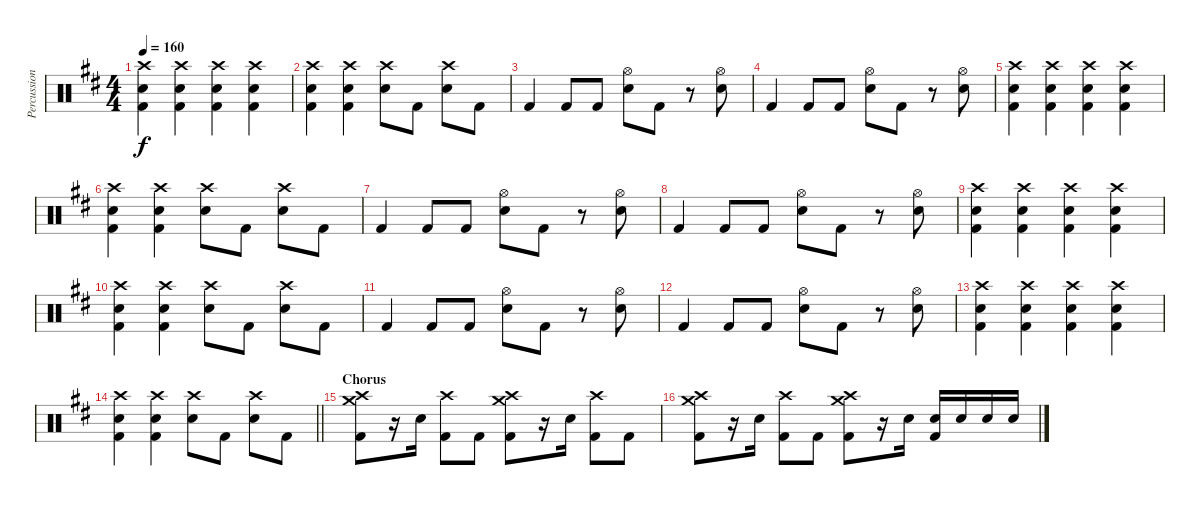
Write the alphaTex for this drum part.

\track ("Percussion" "Percussion") {instrument percussion}
\staff {score}
\articulation defaults
\ts (4 4)
\tempo 160
\clef neutral
\ks d
("Crash high (hit)" "Electric Snare (hit)" "Kick (hit) 2").4{dy f} ("Crash high (hit)" "Electric Snare (hit)" "Kick (hit) 2").4 ("Crash high (hit)" "Electric Snare (hit)" "Kick (hit) 2").4 ("Crash high (hit)" "Electric Snare (hit)" "Kick (hit) 2").4 |
("Crash high (hit)" "Electric Snare (hit)" "Kick (hit) 2").4 ("Crash high (hit)" "Electric Snare (hit)" "Kick (hit) 2").4 ("Crash high (hit)" "Electric Snare (hit)").8 "Kick (hit) 2".8 ("Crash high (hit)" "Electric Snare (hit)").8 "Kick (hit) 2".8 |
"Kick (hit) 2".4 "Kick (hit) 2".8 "Kick (hit) 2".8 ("Hi-Hat (open)" "Electric Snare (hit)").8 "Kick (hit) 2".8 r.8 ("Hi-Hat (open)" "Electric Snare (hit)").8 |
"Kick (hit) 2".4 "Kick (hit) 2".8 "Kick (hit) 2".8 ("Hi-Hat (open)" "Electric Snare (hit)").8 "Kick (hit) 2".8 r.8 ("Hi-Hat (open)" "Electric Snare (hit)").8 |
("Crash high (hit)" "Electric Snare (hit)" "Kick (hit) 2").4 ("Crash high (hit)" "Electric Snare (hit)" "Kick (hit) 2").4 ("Crash high (hit)" "Electric Snare (hit)" "Kick (hit) 2").4 ("Crash high (hit)" "Electric Snare (hit)" "Kick (hit) 2").4 |
("Crash high (hit)" "Electric Snare (hit)" "Kick (hit) 2").4 ("Crash high (hit)" "Electric Snare (hit)" "Kick (hit) 2").4 ("Crash high (hit)" "Electric Snare (hit)").8 "Kick (hit) 2".8 ("Crash high (hit)" "Electric Snare (hit)").8 "Kick (hit) 2".8 |
"Kick (hit) 2".4 "Kick (hit) 2".8 "Kick (hit) 2".8 ("Hi-Hat (open)" "Electric Snare (hit)").8 "Kick (hit) 2".8 r.8 ("Hi-Hat (open)" "Electric Snare (hit)").8 |
"Kick (hit) 2".4 "Kick (hit) 2".8 "Kick (hit) 2".8 ("Hi-Hat (open)" "Electric Snare (hit)").8 "Kick (hit) 2".8 r.8 ("Hi-Hat (open)" "Electric Snare (hit)").8 |
("Crash high (hit)" "Electric Snare (hit)" "Kick (hit) 2").4 ("Crash high (hit)" "Electric Snare (hit)" "Kick (hit) 2").4 ("Crash high (hit)" "Electric Snare (hit)" "Kick (hit) 2").4 ("Crash high (hit)" "Electric Snare (hit)" "Kick (hit) 2").4 |
("Crash high (hit)" "Electric Snare (hit)" "Kick (hit) 2").4 ("Crash high (hit)" "Electric Snare (hit)" "Kick (hit) 2").4 ("Crash high (hit)" "Electric Snare (hit)").8 "Kick (hit) 2".8 ("Crash high (hit)" "Electric Snare (hit)").8 "Kick (hit) 2".8 |
"Kick (hit) 2".4 "Kick (hit) 2".8 "Kick (hit) 2".8 ("Hi-Hat (open)" "Electric Snare (hit)").8 "Kick (hit) 2".8 r.8 ("Hi-Hat (open)" "Electric Snare (hit)").8 |
"Kick (hit) 2".4 "Kick (hit) 2".8 "Kick (hit) 2".8 ("Hi-Hat (open)" "Electric Snare (hit)").8 "Kick (hit) 2".8 r.8 ("Hi-Hat (open)" "Electric Snare (hit)").8 |
("Crash high (hit)" "Electric Snare (hit)" "Kick (hit) 2").4 ("Crash high (hit)" "Electric Snare (hit)" "Kick (hit) 2").4 ("Crash high (hit)" "Electric Snare (hit)" "Kick (hit) 2").4 ("Crash high (hit)" "Electric Snare (hit)" "Kick (hit) 2").4 |
\barLineRight lightlight
("Crash high (hit)" "Electric Snare (hit)" "Kick (hit) 2").4 ("Crash high (hit)" "Electric Snare (hit)" "Kick (hit) 2").4 ("Crash high (hit)" "Electric Snare (hit)").8 "Kick (hit) 2".8 ("Crash high (hit)" "Electric Snare (hit)").8 "Kick (hit) 2".8 |
\section ("" "Chorus")
("Crash medium (hit)" "Crash high (hit)" "Kick (hit) 2").8 r.16 "Electric Snare (hit)".16 ("Crash high (hit)" "Kick (hit) 2").8 "Kick (hit) 2".8 ("Crash medium (hit)" "Crash high (hit)" "Kick (hit) 2").8 r.16 "Electric Snare (hit)".16 ("Crash high (hit)" "Kick (hit) 2").8 "Kick (hit) 2".8 |
("Crash medium (hit)" "Crash high (hit)" "Kick (hit) 2").8 r.16 "Electric Snare (hit)".16 ("Crash high (hit)" "Kick (hit) 2").8 "Kick (hit) 2".8 ("Crash medium (hit)" "Crash high (hit)" "Kick (hit) 2").8 r.16 "Electric Snare (hit)".16 ("Electric Snare (hit)" "Kick (hit) 2").16 "Electric Snare (hit)".16 "Electric Snare (hit)".16 "Electric Snare (hit)".16
